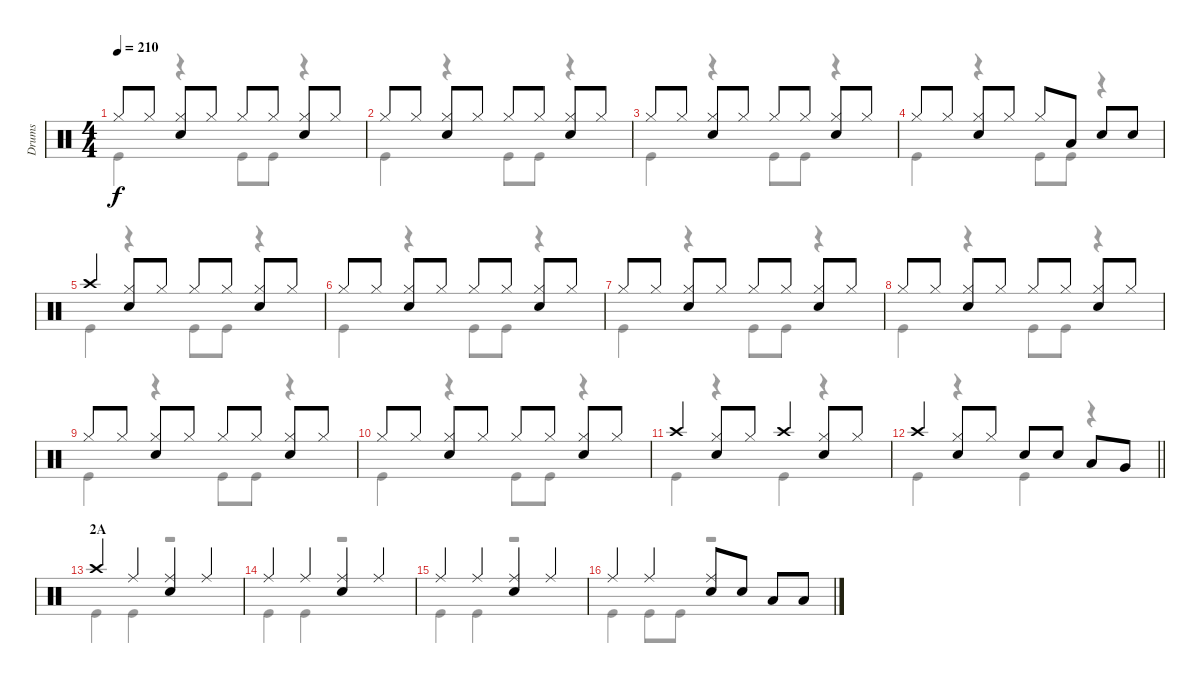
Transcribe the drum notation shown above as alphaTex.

\track ("Drums" "Drums") {instrument percussion}
\staff {score}
\articulation defaults
\voice
\ts (4 4)
\tempo 210
\clef neutral
\ks c "Hi-Hat (closed)".8{dy f} "Hi-Hat (closed)".8
("Hi-Hat (closed)" "Snare (hit) 2").8 "Hi-Hat (closed)".8 "Hi-Hat (closed)".8 "Hi-Hat (closed)".8 ("Hi-Hat (closed)" "Snare (hit) 2").8 "Hi-Hat (closed)".8 |
"Hi-Hat (closed)".8 "Hi-Hat (closed)".8 ("Hi-Hat (closed)" "Snare (hit) 2").8 "Hi-Hat (closed)".8 "Hi-Hat (closed)".8 "Hi-Hat (closed)".8 ("Hi-Hat (closed)" "Snare (hit) 2").8 "Hi-Hat (closed)".8 |
"Hi-Hat (closed)".8 "Hi-Hat (closed)".8 ("Hi-Hat (closed)" "Snare (hit) 2").8 "Hi-Hat (closed)".8 "Hi-Hat (closed)".8 "Hi-Hat (closed)".8 ("Hi-Hat (closed)" "Snare (hit) 2").8 "Hi-Hat (closed)".8 |
"Hi-Hat (closed)".8 "Hi-Hat (closed)".8 ("Hi-Hat (closed)" "Snare (hit) 2").8 "Hi-Hat (closed)".8 "Hi-Hat (closed)".8 "Low Tom (hit)".8 "Snare (hit) 2".8 "Snare (hit) 2".8 |
"Crash high (hit)".4 ("Hi-Hat (closed)" "Snare (hit) 2").8 "Hi-Hat (closed)".8 "Hi-Hat (closed)".8 "Hi-Hat (closed)".8 ("Hi-Hat (closed)" "Snare (hit) 2").8 "Hi-Hat (closed)".8 |
"Hi-Hat (closed)".8 "Hi-Hat (closed)".8 ("Hi-Hat (closed)" "Snare (hit) 2").8 "Hi-Hat (closed)".8 "Hi-Hat (closed)".8 "Hi-Hat (closed)".8 ("Hi-Hat (closed)" "Snare (hit) 2").8 "Hi-Hat (closed)".8 |
"Hi-Hat (closed)".8 "Hi-Hat (closed)".8 ("Hi-Hat (closed)" "Snare (hit) 2").8 "Hi-Hat (closed)".8 "Hi-Hat (closed)".8 "Hi-Hat (closed)".8 ("Hi-Hat (closed)" "Snare (hit) 2").8 "Hi-Hat (closed)".8 |
"Hi-Hat (closed)".8 "Hi-Hat (closed)".8 ("Hi-Hat (closed)" "Snare (hit) 2").8 "Hi-Hat (closed)".8 "Hi-Hat (closed)".8 "Hi-Hat (closed)".8 ("Hi-Hat (closed)" "Snare (hit) 2").8 "Hi-Hat (closed)".8 |
"Hi-Hat (closed)".8 "Hi-Hat (closed)".8 ("Hi-Hat (closed)" "Snare (hit) 2").8 "Hi-Hat (closed)".8 "Hi-Hat (closed)".8 "Hi-Hat (closed)".8 ("Hi-Hat (closed)" "Snare (hit) 2").8 "Hi-Hat (closed)".8 |
"Hi-Hat (closed)".8 "Hi-Hat (closed)".8 ("Hi-Hat (closed)" "Snare (hit) 2").8 "Hi-Hat (closed)".8 "Hi-Hat (closed)".8 "Hi-Hat (closed)".8 ("Hi-Hat (closed)" "Snare (hit) 2").8 "Hi-Hat (closed)".8 |
"Crash high (hit)".4 ("Hi-Hat (closed)" "Snare (hit) 2").8 "Hi-Hat (closed)".8 "Crash high (hit)".4 ("Hi-Hat (closed)" "Snare (hit) 2").8 "Hi-Hat (closed)".8 |
\barLineRight lightlight "Crash high (hit)".4
("Hi-Hat (closed)" "Snare (hit) 2").8 "Hi-Hat (closed)".8 "Snare (hit) 2".8 "Snare (hit) 2".8 "Low Tom (hit)".8 "Very Low Tom (hit)".8 |
\section ("" "2A")
"Crash high (hit)".4 "Ride (middle)".4 ("Ride (middle)" "Snare (hit) 2").4 "Ride (middle)".4 |
"Ride (middle)".4 "Ride (middle)".4 ("Ride (middle)" "Snare (hit) 2").4 "Ride (middle)".4 |
"Ride (middle)".4 "Ride (middle)".4 ("Ride (middle)" "Snare (hit) 2").4 "Ride (middle)".4 |
"Ride (middle)".4 "Ride (middle)".4 ("Ride (middle)" "Snare (hit) 2").8 "Snare (hit) 2".8 "Low Tom (hit)".8 "Low Tom (hit)".8
\voice
\clef neutral
\ottava regular
\simile none
\ks c "Kick (hit)".4{dy f}
r.4 "Kick (hit)".8 "Kick (hit)".8 r.4 |
"Kick (hit)".4 r.4 "Kick (hit)".8 "Kick (hit)".8 r.4 |
"Kick (hit)".4 r.4 "Kick (hit)".8 "Kick (hit)".8 r.4 |
"Kick (hit)".4 r.4 "Kick (hit)".8 "Kick (hit)".8 r.4 |
"Kick (hit)".4 r.4 "Kick (hit)".8 "Kick (hit)".8 r.4 |
"Kick (hit)".4 r.4 "Kick (hit)".8 "Kick (hit)".8 r.4 |
"Kick (hit)".4 r.4 "Kick (hit)".8 "Kick (hit)".8 r.4 |
"Kick (hit)".4 r.4 "Kick (hit)".8 "Kick (hit)".8 r.4 |
"Kick (hit)".4 r.4 "Kick (hit)".8 "Kick (hit)".8 r.4 |
"Kick (hit)".4 r.4 "Kick (hit)".8 "Kick (hit)".8 r.4 |
"Kick (hit)".4 r.4 "Kick (hit)".4 r.4 |
\barLineRight lightlight "Kick (hit)".4
r.4 "Kick (hit)".4 r.4 |
"Kick (hit)".4 "Kick (hit)".4 r.2 |
"Kick (hit)".4 "Kick (hit)".4 r.2 |
"Kick (hit)".4 "Kick (hit)".4 r.2 |
"Kick (hit)".4 "Kick (hit)".8 "Kick (hit)".8 r.2
